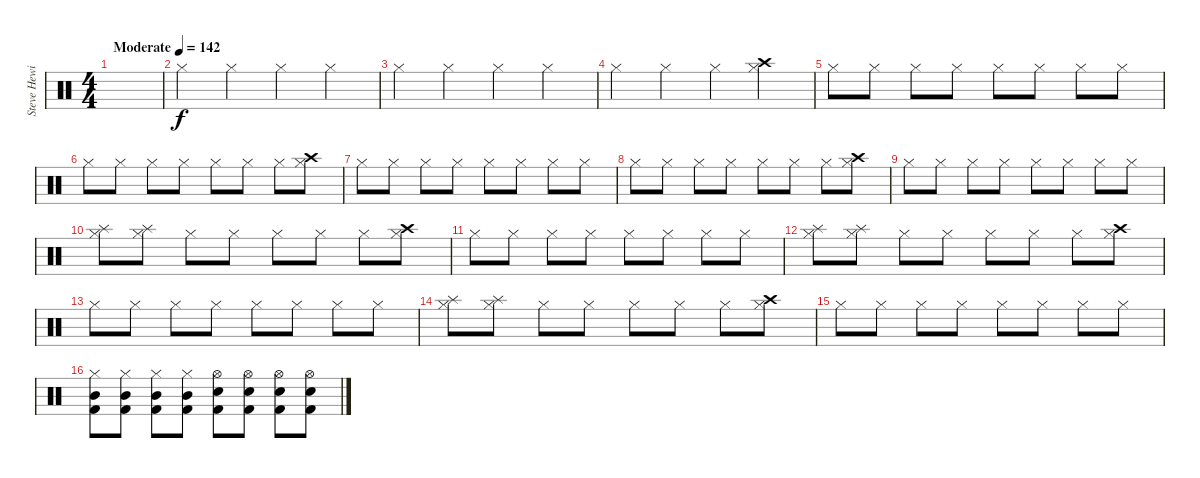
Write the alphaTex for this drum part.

\track ("Steve Hewitt" "Steve Hewi") {instrument percussion}
\staff {score}
\articulation defaults
\ts (4 4)
\tempo (142 "Moderate")
\clef neutral
\ks c
|
"Hi-Hat (closed)".4 "Hi-Hat (closed)".4 "Hi-Hat (closed)".4 "Hi-Hat (closed)".4 |
"Hi-Hat (closed)".4 "Hi-Hat (closed)".4 "Hi-Hat (closed)".4 "Hi-Hat (closed)".4 |
"Hi-Hat (closed)".4 "Hi-Hat (closed)".4 "Hi-Hat (closed)".4 ("Crash high (hit)" "Hi-Hat (closed)").4 |
"Hi-Hat (closed)".8 "Hi-Hat (closed)".8 "Hi-Hat (closed)".8 "Hi-Hat (closed)".8 "Hi-Hat (closed)".8 "Hi-Hat (closed)".8 "Hi-Hat (closed)".8 "Hi-Hat (closed)".8 |
"Hi-Hat (closed)".8 "Hi-Hat (closed)".8 "Hi-Hat (closed)".8 "Hi-Hat (closed)".8 "Hi-Hat (closed)".8 "Hi-Hat (closed)".8 "Hi-Hat (closed)".8 ("Crash high (hit)" "Hi-Hat (closed)").8 |
"Hi-Hat (closed)".8 "Hi-Hat (closed)".8 "Hi-Hat (closed)".8 "Hi-Hat (closed)".8 "Hi-Hat (closed)".8 "Hi-Hat (closed)".8 "Hi-Hat (closed)".8 "Hi-Hat (closed)".8 |
"Hi-Hat (closed)".8 "Hi-Hat (closed)".8 "Hi-Hat (closed)".8 "Hi-Hat (closed)".8 "Hi-Hat (closed)".8 "Hi-Hat (closed)".8 "Hi-Hat (closed)".8 ("Crash high (hit)" "Hi-Hat (closed)").8 |
"Hi-Hat (closed)".8 "Hi-Hat (closed)".8 "Hi-Hat (closed)".8 "Hi-Hat (closed)".8 "Hi-Hat (closed)".8 "Hi-Hat (closed)".8 "Hi-Hat (closed)".8 "Hi-Hat (closed)".8 |
("Splash (hit)" "Hi-Hat (closed)").8 ("Splash (hit)" "Hi-Hat (closed)").8 "Hi-Hat (closed)".8 "Hi-Hat (closed)".8 "Hi-Hat (closed)".8 "Hi-Hat (closed)".8 "Hi-Hat (closed)".8 ("Crash high (hit)" "Hi-Hat (closed)").8 |
"Hi-Hat (closed)".8 "Hi-Hat (closed)".8 "Hi-Hat (closed)".8 "Hi-Hat (closed)".8 "Hi-Hat (closed)".8 "Hi-Hat (closed)".8 "Hi-Hat (closed)".8 "Hi-Hat (closed)".8 |
("Splash (hit)" "Hi-Hat (closed)").8 ("Splash (hit)" "Hi-Hat (closed)").8 "Hi-Hat (closed)".8 "Hi-Hat (closed)".8 "Hi-Hat (closed)".8 "Hi-Hat (closed)".8 "Hi-Hat (closed)".8 ("Crash high (hit)" "Hi-Hat (closed)").8 |
"Hi-Hat (closed)".8 "Hi-Hat (closed)".8 "Hi-Hat (closed)".8 "Hi-Hat (closed)".8 "Hi-Hat (closed)".8 "Hi-Hat (closed)".8 "Hi-Hat (closed)".8 "Hi-Hat (closed)".8 |
("Splash (hit)" "Hi-Hat (closed)").8 ("Splash (hit)" "Hi-Hat (closed)").8 "Hi-Hat (closed)".8 "Hi-Hat (closed)".8 "Hi-Hat (closed)".8 "Hi-Hat (closed)".8 "Hi-Hat (closed)".8 ("Crash high (hit)" "Hi-Hat (closed)").8 |
"Hi-Hat (closed)".8 "Hi-Hat (closed)".8 "Hi-Hat (closed)".8 "Hi-Hat (closed)".8 "Hi-Hat (closed)".8 "Hi-Hat (closed)".8 "Hi-Hat (closed)".8 "Hi-Hat (closed)".8 |
("Mid Tom (hit)" "Kick (hit) 2" "Hi-Hat (closed)").8 ("Mid Tom (hit)" "Kick (hit) 2" "Hi-Hat (closed)").8 ("Mid Tom (hit)" "Kick (hit) 2" "Hi-Hat (closed)").8 ("Mid Tom (hit)" "Kick (hit) 2" "Hi-Hat (closed)").8 ("Snare (hit) 2" "Kick (hit) 2" "Hi-Hat (open)").8 ("Snare (hit) 2" "Kick (hit) 2" "Hi-Hat (open)").8 ("Snare (hit) 2" "Kick (hit) 2" "Hi-Hat (open)").8 ("Snare (hit) 2" "Kick (hit) 2" "Hi-Hat (open)").8
